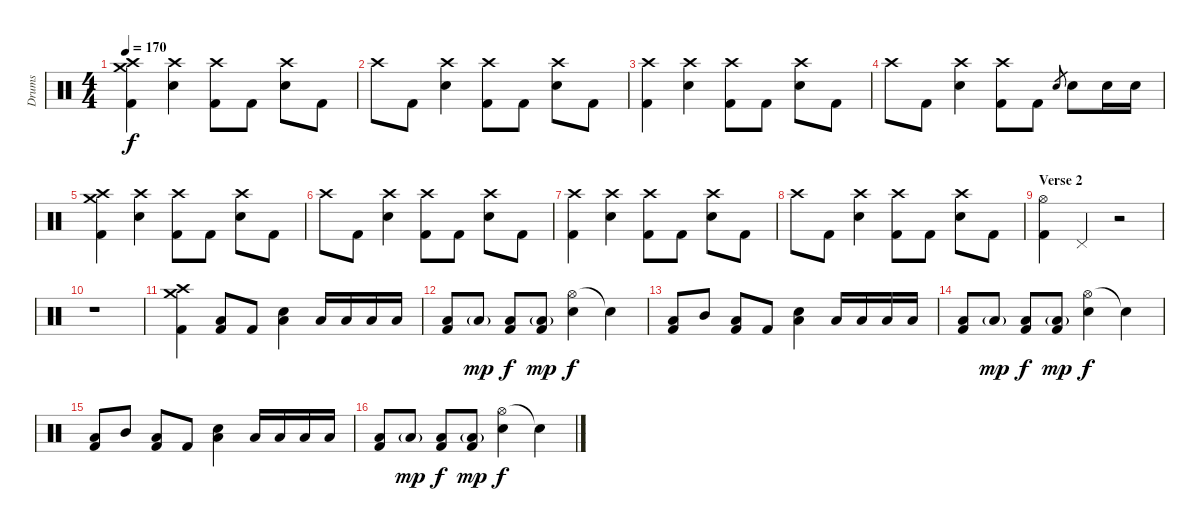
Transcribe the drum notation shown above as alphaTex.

\track ("Drums" "Drums") {instrument percussion}
\staff {score}
\articulation defaults
\ts (4 4)
\tempo 170
\clef neutral
\ks c
("Crash medium (hit)" "Crash high (hit)" "Kick (hit) 2").4{dy f} ("Crash high (hit)" "Snare (hit) 2").4 ("Crash high (hit)" "Kick (hit) 2").8 "Kick (hit) 2".8 ("Crash high (hit)" "Snare (hit) 2").8 "Kick (hit) 2".8 |
"Crash high (hit)".8 "Kick (hit) 2".8 ("Crash high (hit)" "Snare (hit) 2").4 ("Crash high (hit)" "Kick (hit) 2").8 "Kick (hit) 2".8 ("Crash high (hit)" "Snare (hit) 2").8 "Kick (hit) 2".8 |
("Crash high (hit)" "Kick (hit) 2").4 ("Crash high (hit)" "Snare (hit) 2").4 ("Crash high (hit)" "Kick (hit) 2").8 "Kick (hit) 2".8 ("Crash high (hit)" "Snare (hit) 2").8 "Kick (hit) 2".8 |
"Crash high (hit)".8 "Kick (hit) 2".8 ("Crash high (hit)" "Snare (hit) 2").4 ("Crash high (hit)" "Kick (hit) 2").8 "Kick (hit) 2".8 "Snare (hit) 2".8{gr} "Snare (hit) 2".8 "Snare (hit) 2".16 "Snare (hit) 2".16 |
("Crash medium (hit)" "Crash high (hit)" "Kick (hit) 2").4 ("Crash high (hit)" "Snare (hit) 2").4 ("Crash high (hit)" "Kick (hit) 2").8 "Kick (hit) 2".8 ("Crash high (hit)" "Snare (hit) 2").8 "Kick (hit) 2".8 |
"Crash high (hit)".8 "Kick (hit) 2".8 ("Crash high (hit)" "Snare (hit) 2").4 ("Crash high (hit)" "Kick (hit) 2").8 "Kick (hit) 2".8 ("Crash high (hit)" "Snare (hit) 2").8 "Kick (hit) 2".8 |
("Crash high (hit)" "Kick (hit) 2").4 ("Crash high (hit)" "Snare (hit) 2").4 ("Crash high (hit)" "Kick (hit) 2").8 "Kick (hit) 2".8 ("Crash high (hit)" "Snare (hit) 2").8 "Kick (hit) 2".8 |
"Crash high (hit)".8 "Kick (hit) 2".8 ("Crash high (hit)" "Snare (hit) 2").4 ("Crash high (hit)" "Kick (hit) 2").8 "Kick (hit) 2".8 ("Crash high (hit)" "Snare (hit) 2").8 "Kick (hit) 2".8 |
\section ("" "Verse 2")
("Hi-Hat (open)" "Kick (hit) 2").4 "Pedal Hi-Hat (hit)".4 r.2 |
r.1 |
("Crash medium (hit)" "Crash high (hit)" "Kick (hit) 2").4 ("Low Floor Tom (hit)" "Kick (hit) 2").8 "Kick (hit) 2".8 ("Low Floor Tom (hit)" "Snare (hit) 2").4 "Low Floor Tom (hit)".16 "Low Floor Tom (hit)".16 "Low Floor Tom (hit)".16 "Low Floor Tom (hit)".16 |
("Low Floor Tom (hit)" "Kick (hit) 2").8 "Low Floor Tom (hit)"{g}.8{dy mp} ("Low Floor Tom (hit)" "Kick (hit) 2").8{dy f} ("Low Floor Tom (hit)"{g} "Kick (hit) 2").8{dy mp} ("Hi-Hat (open)" "Snare (hit) 2").4{dy f} "Snare (hit)"{t}.4 |
("Low Floor Tom (hit)" "Kick (hit) 2").8 "Mid Tom (hit)".8 ("Low Floor Tom (hit)" "Kick (hit) 2").8 "Kick (hit) 2".8 ("Low Floor Tom (hit)" "Snare (hit) 2").4 "Low Floor Tom (hit)".16 "Low Floor Tom (hit)".16 "Low Floor Tom (hit)".16 "Low Floor Tom (hit)".16 |
("Low Floor Tom (hit)" "Kick (hit) 2").8 "Low Floor Tom (hit)"{g}.8{dy mp} ("Low Floor Tom (hit)" "Kick (hit) 2").8{dy f} ("Low Floor Tom (hit)"{g} "Kick (hit) 2").8{dy mp} ("Hi-Hat (open)" "Snare (hit) 2").4{dy f} "Snare (hit)"{t}.4 |
("Low Floor Tom (hit)" "Kick (hit) 2").8 "Mid Tom (hit)".8 ("Low Floor Tom (hit)" "Kick (hit) 2").8 "Kick (hit) 2".8 ("Low Floor Tom (hit)" "Snare (hit) 2").4 "Low Floor Tom (hit)".16 "Low Floor Tom (hit)".16 "Low Floor Tom (hit)".16 "Low Floor Tom (hit)".16 |
("Low Floor Tom (hit)" "Kick (hit) 2").8 "Low Floor Tom (hit)"{g}.8{dy mp} ("Low Floor Tom (hit)" "Kick (hit) 2").8{dy f} ("Low Floor Tom (hit)"{g} "Kick (hit) 2").8{dy mp} ("Hi-Hat (open)" "Snare (hit) 2").4{dy f} "Snare (hit)"{t}.4
